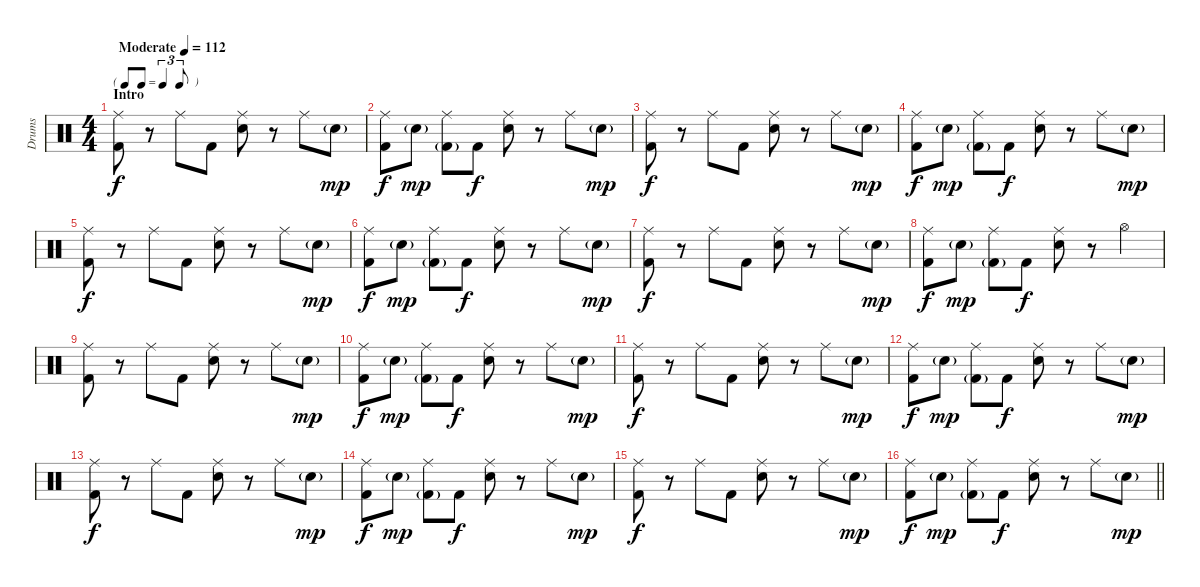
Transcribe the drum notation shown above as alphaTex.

\track ("Drums" "Drums") {instrument percussion}
\staff {score}
\articulation defaults
\ts (4 4)
\tf triplet8th
\section ("" "Intro")
\tempo (112 "Moderate")
\clef neutral
\ks c
("Ride (middle)" "Kick (hit) 2").8{dy f} r.8 "Ride (middle)".8 "Kick (hit) 2".8 ("Ride (middle)" "Snare (hit) 2").8 r.8 "Ride (middle)".8 "Snare (hit) 2"{g}.8{dy mp} |
("Ride (middle)" "Kick (hit) 2").8{dy f} "Snare (hit) 2"{g}.8{dy mp} ("Ride (middle)" "Kick (hit) 2"{g}).8 "Kick (hit) 2".8{dy f} ("Ride (middle)" "Snare (hit) 2").8 r.8 "Ride (middle)".8 "Snare (hit) 2"{g}.8{dy mp} |
("Ride (middle)" "Kick (hit) 2").8{dy f} r.8 "Ride (middle)".8 "Kick (hit) 2".8 ("Ride (middle)" "Snare (hit) 2").8 r.8 "Ride (middle)".8 "Snare (hit) 2"{g}.8{dy mp} |
("Ride (middle)" "Kick (hit) 2").8{dy f} "Snare (hit) 2"{g}.8{dy mp} ("Ride (middle)" "Kick (hit) 2"{g}).8 "Kick (hit) 2".8{dy f} ("Ride (middle)" "Snare (hit) 2").8 r.8 "Ride (middle)".8 "Snare (hit) 2"{g}.8{dy mp} |
("Ride (middle)" "Kick (hit) 2").8{dy f} r.8 "Ride (middle)".8 "Kick (hit) 2".8 ("Ride (middle)" "Snare (hit) 2").8 r.8 "Ride (middle)".8 "Snare (hit) 2"{g}.8{dy mp} |
("Ride (middle)" "Kick (hit) 2").8{dy f} "Snare (hit) 2"{g}.8{dy mp} ("Ride (middle)" "Kick (hit) 2"{g}).8 "Kick (hit) 2".8{dy f} ("Ride (middle)" "Snare (hit) 2").8 r.8 "Ride (middle)".8 "Snare (hit) 2"{g}.8{dy mp} |
("Ride (middle)" "Kick (hit) 2").8{dy f} r.8 "Ride (middle)".8 "Kick (hit) 2".8 ("Ride (middle)" "Snare (hit) 2").8 r.8 "Ride (middle)".8 "Snare (hit) 2"{g}.8{dy mp} |
("Ride (middle)" "Kick (hit) 2").8{dy f} "Snare (hit) 2"{g}.8{dy mp} ("Ride (middle)" "Kick (hit) 2"{g}).8 "Kick (hit) 2".8{dy f} ("Ride (middle)" "Snare (hit) 2").8 r.8 "Hi-Hat (open)".4 |
("Ride (middle)" "Kick (hit) 2").8 r.8 "Ride (middle)".8 "Kick (hit) 2".8 ("Ride (middle)" "Snare (hit) 2").8 r.8 "Ride (middle)".8 "Snare (hit) 2"{g}.8{dy mp} |
("Ride (middle)" "Kick (hit) 2").8{dy f} "Snare (hit) 2"{g}.8{dy mp} ("Ride (middle)" "Kick (hit) 2"{g}).8 "Kick (hit) 2".8{dy f} ("Ride (middle)" "Snare (hit) 2").8 r.8 "Ride (middle)".8 "Snare (hit) 2"{g}.8{dy mp} |
("Ride (middle)" "Kick (hit) 2").8{dy f} r.8 "Ride (middle)".8 "Kick (hit) 2".8 ("Ride (middle)" "Snare (hit) 2").8 r.8 "Ride (middle)".8 "Snare (hit) 2"{g}.8{dy mp} |
("Ride (middle)" "Kick (hit) 2").8{dy f} "Snare (hit) 2"{g}.8{dy mp} ("Ride (middle)" "Kick (hit) 2"{g}).8 "Kick (hit) 2".8{dy f} ("Ride (middle)" "Snare (hit) 2").8 r.8 "Ride (middle)".8 "Snare (hit) 2"{g}.8{dy mp} |
("Ride (middle)" "Kick (hit) 2").8{dy f} r.8 "Ride (middle)".8 "Kick (hit) 2".8 ("Ride (middle)" "Snare (hit) 2").8 r.8 "Ride (middle)".8 "Snare (hit) 2"{g}.8{dy mp} |
("Ride (middle)" "Kick (hit) 2").8{dy f} "Snare (hit) 2"{g}.8{dy mp} ("Ride (middle)" "Kick (hit) 2"{g}).8 "Kick (hit) 2".8{dy f} ("Ride (middle)" "Snare (hit) 2").8 r.8 "Ride (middle)".8 "Snare (hit) 2"{g}.8{dy mp} |
("Ride (middle)" "Kick (hit) 2").8{dy f} r.8 "Ride (middle)".8 "Kick (hit) 2".8 ("Ride (middle)" "Snare (hit) 2").8 r.8 "Ride (middle)".8 "Snare (hit) 2"{g}.8{dy mp} |
\barLineRight lightlight
("Ride (middle)" "Kick (hit) 2").8{dy f} "Snare (hit) 2"{g}.8{dy mp} ("Ride (middle)" "Kick (hit) 2"{g}).8 "Kick (hit) 2".8{dy f} ("Ride (middle)" "Snare (hit) 2").8 r.8 "Ride (middle)".8 "Snare (hit) 2"{g}.8{dy mp}
